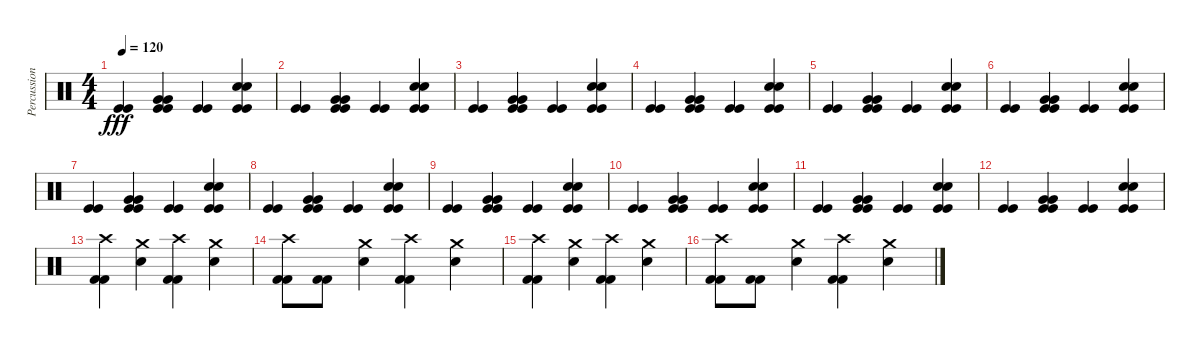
\track ("Percussion" "Percussion") {instrument percussion}
\staff {score}
\articulation defaults
\ts (4 4)
\tempo 120
\clef neutral
\ks c
("Kick (hit)" "Kick (hit)").4{dy fff} ("Kick (hit)" "Kick (hit)" "Very Low Tom (hit)" "Very Low Tom (hit)").4 ("Kick (hit)" "Kick (hit)").4 ("Kick (hit)" "Kick (hit)" "Snare (hit) 2" "Snare (hit) 2").4 |
("Kick (hit)" "Kick (hit)").4 ("Kick (hit)" "Kick (hit)" "Very Low Tom (hit)" "Very Low Tom (hit)").4 ("Kick (hit)" "Kick (hit)").4 ("Kick (hit)" "Kick (hit)" "Snare (hit) 2" "Snare (hit) 2").4 |
("Kick (hit)" "Kick (hit)").4 ("Kick (hit)" "Kick (hit)" "Very Low Tom (hit)" "Very Low Tom (hit)").4 ("Kick (hit)" "Kick (hit)").4 ("Kick (hit)" "Kick (hit)" "Snare (hit) 2" "Snare (hit) 2").4 |
("Kick (hit)" "Kick (hit)").4 ("Kick (hit)" "Kick (hit)" "Very Low Tom (hit)" "Very Low Tom (hit)").4 ("Kick (hit)" "Kick (hit)").4 ("Kick (hit)" "Kick (hit)" "Snare (hit) 2" "Snare (hit) 2").4 |
("Kick (hit)" "Kick (hit)").4 ("Kick (hit)" "Kick (hit)" "Very Low Tom (hit)" "Very Low Tom (hit)").4 ("Kick (hit)" "Kick (hit)").4 ("Kick (hit)" "Kick (hit)" "Snare (hit) 2" "Snare (hit) 2").4 |
("Kick (hit)" "Kick (hit)").4 ("Kick (hit)" "Kick (hit)" "Very Low Tom (hit)" "Very Low Tom (hit)").4 ("Kick (hit)" "Kick (hit)").4 ("Kick (hit)" "Kick (hit)" "Snare (hit) 2" "Snare (hit) 2").4 |
("Kick (hit)" "Kick (hit)").4 ("Kick (hit)" "Kick (hit)" "Very Low Tom (hit)" "Very Low Tom (hit)").4 ("Kick (hit)" "Kick (hit)").4 ("Kick (hit)" "Kick (hit)" "Snare (hit) 2" "Snare (hit) 2").4 |
("Kick (hit)" "Kick (hit)").4 ("Kick (hit)" "Kick (hit)" "Very Low Tom (hit)" "Very Low Tom (hit)").4 ("Kick (hit)" "Kick (hit)").4 ("Kick (hit)" "Kick (hit)" "Snare (hit) 2" "Snare (hit) 2").4 |
("Kick (hit)" "Kick (hit)").4 ("Kick (hit)" "Kick (hit)" "Very Low Tom (hit)" "Very Low Tom (hit)").4 ("Kick (hit)" "Kick (hit)").4 ("Kick (hit)" "Kick (hit)" "Snare (hit) 2" "Snare (hit) 2").4 |
("Kick (hit)" "Kick (hit)").4 ("Kick (hit)" "Kick (hit)" "Very Low Tom (hit)" "Very Low Tom (hit)").4 ("Kick (hit)" "Kick (hit)").4 ("Kick (hit)" "Kick (hit)" "Snare (hit) 2" "Snare (hit) 2").4 |
("Kick (hit)" "Kick (hit)").4 ("Kick (hit)" "Kick (hit)" "Very Low Tom (hit)" "Very Low Tom (hit)").4 ("Kick (hit)" "Kick (hit)").4 ("Kick (hit)" "Kick (hit)" "Snare (hit) 2" "Snare (hit) 2").4 |
("Kick (hit)" "Kick (hit)").4 ("Kick (hit)" "Kick (hit)" "Very Low Tom (hit)" "Very Low Tom (hit)").4 ("Kick (hit)" "Kick (hit)").4 ("Kick (hit)" "Kick (hit)" "Snare (hit) 2" "Snare (hit) 2").4 |
("Crash high (hit)" "Kick (hit) 2" "Kick (hit) 2").4 ("Crash medium (hit)" "Snare (hit) 2").4 ("Crash high (hit)" "Kick (hit) 2" "Kick (hit) 2").4 ("Crash medium (hit)" "Snare (hit) 2").4 |
("Crash high (hit)" "Kick (hit) 2" "Kick (hit) 2").8 ("Kick (hit) 2" "Kick (hit) 2").8 ("Crash medium (hit)" "Snare (hit) 2").4 ("Crash high (hit)" "Kick (hit) 2" "Kick (hit) 2").4 ("Crash medium (hit)" "Snare (hit) 2").4 |
("Crash high (hit)" "Kick (hit) 2" "Kick (hit) 2").4 ("Crash medium (hit)" "Snare (hit) 2").4 ("Crash high (hit)" "Kick (hit) 2" "Kick (hit) 2").4 ("Crash medium (hit)" "Snare (hit) 2").4 |
("Crash high (hit)" "Kick (hit) 2" "Kick (hit) 2").8 ("Kick (hit) 2" "Kick (hit) 2").8 ("Crash medium (hit)" "Snare (hit) 2").4 ("Crash high (hit)" "Kick (hit) 2" "Kick (hit) 2").4 ("Crash medium (hit)" "Snare (hit) 2").4
